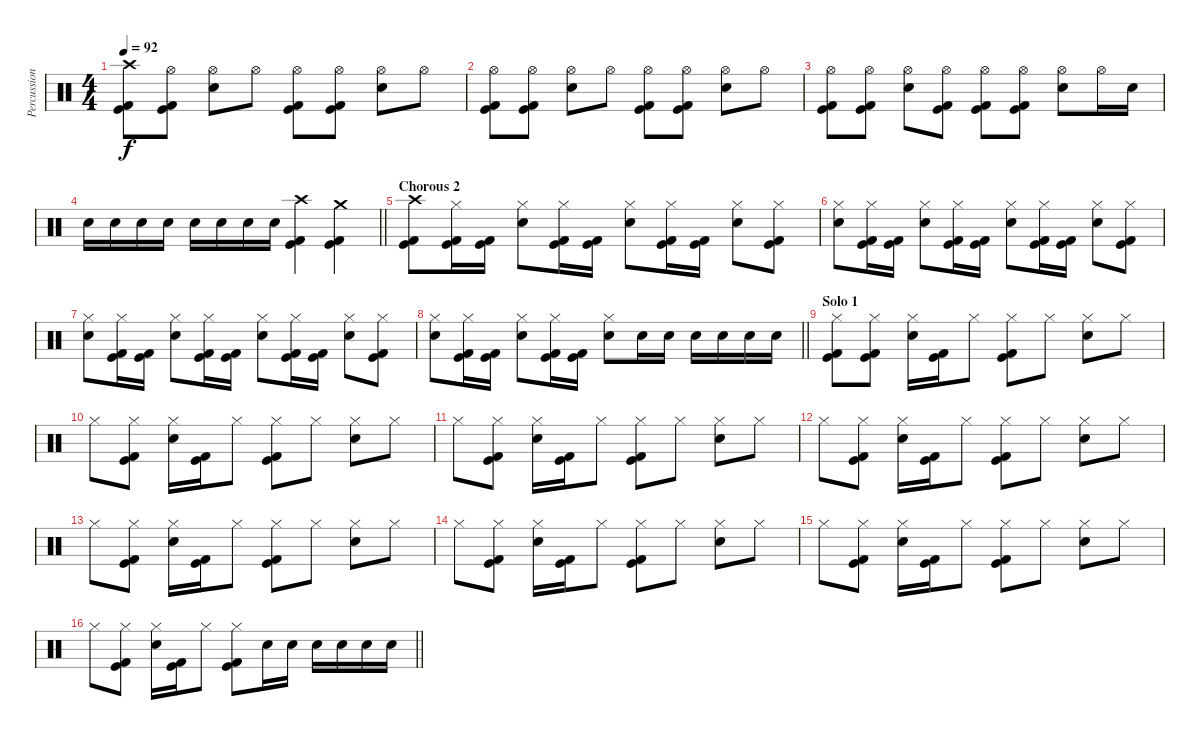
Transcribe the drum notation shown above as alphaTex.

\track ("Percussion" "Percussion") {instrument percussion}
\staff {score}
\articulation defaults
\ts (4 4)
\section ("" "")
\tempo 92
\clef neutral
\ks c
("Crash high (hit)" "Kick (hit)" "Kick (hit) 2").8{dy f} ("Hi-Hat (open)" "Kick (hit)" "Kick (hit) 2").8 ("Hi-Hat (open)" "Electric Snare (hit)").8 "Hi-Hat (open)".8 ("Hi-Hat (open)" "Kick (hit)" "Kick (hit) 2").8 ("Hi-Hat (open)" "Kick (hit)" "Kick (hit) 2").8 ("Hi-Hat (open)" "Electric Snare (hit)").8 "Hi-Hat (open)".8 |
("Hi-Hat (open)" "Kick (hit)" "Kick (hit) 2").8 ("Hi-Hat (open)" "Kick (hit)" "Kick (hit) 2").8 ("Hi-Hat (open)" "Electric Snare (hit)").8 "Hi-Hat (open)".8 ("Hi-Hat (open)" "Kick (hit)" "Kick (hit) 2").8 ("Hi-Hat (open)" "Kick (hit)" "Kick (hit) 2").8 ("Hi-Hat (open)" "Electric Snare (hit)").8 "Hi-Hat (open)".8 |
("Hi-Hat (open)" "Kick (hit)" "Kick (hit) 2").8 ("Hi-Hat (open)" "Kick (hit)" "Kick (hit) 2").8 ("Hi-Hat (open)" "Electric Snare (hit)").8 ("Hi-Hat (open)" "Kick (hit)" "Kick (hit) 2").8 ("Hi-Hat (open)" "Kick (hit)" "Kick (hit) 2").8 ("Hi-Hat (open)" "Kick (hit)" "Kick (hit) 2").8 ("Hi-Hat (open)" "Electric Snare (hit)").8 "Hi-Hat (open)".16 "Electric Snare (hit)".16 |
\barLineRight lightlight "Electric Snare (hit)".16 "Electric Snare (hit)".16 "Electric Snare (hit)".16 "Electric Snare (hit)".16 "Electric Snare (hit)".16 "Electric Snare (hit)".16 "Electric Snare (hit)".16 "Electric Snare (hit)".16
("Crash high (hit)" "Kick (hit)" "Kick (hit) 2").4 ("Crash medium (hit)" "Kick (hit)" "Kick (hit) 2").4 |
\section ("" "Chorous 2")
("Crash high (hit)" "Kick (hit)" "Kick (hit) 2").8 ("Hi-Hat (closed)" "Kick (hit)" "Kick (hit) 2").16 ("Kick (hit)" "Kick (hit) 2").16 ("Hi-Hat (closed)" "Electric Snare (hit)").8 ("Hi-Hat (closed)" "Kick (hit)" "Kick (hit) 2").16 ("Kick (hit)" "Kick (hit) 2").16 ("Hi-Hat (closed)" "Electric Snare (hit)").8 ("Hi-Hat (closed)" "Kick (hit)" "Kick (hit) 2").16 ("Kick (hit)" "Kick (hit) 2").16 ("Hi-Hat (closed)" "Electric Snare (hit)").8 ("Hi-Hat (closed)" "Kick (hit)" "Kick (hit) 2").8 |
("Hi-Hat (closed)" "Electric Snare (hit)").8 ("Hi-Hat (closed)" "Kick (hit)" "Kick (hit) 2").16 ("Kick (hit)" "Kick (hit) 2").16 ("Hi-Hat (closed)" "Electric Snare (hit)").8 ("Hi-Hat (closed)" "Kick (hit)" "Kick (hit) 2").16 ("Kick (hit)" "Kick (hit) 2").16 ("Hi-Hat (closed)" "Electric Snare (hit)").8 ("Hi-Hat (closed)" "Kick (hit)" "Kick (hit) 2").16 ("Kick (hit)" "Kick (hit) 2").16 ("Hi-Hat (closed)" "Electric Snare (hit)").8 ("Hi-Hat (closed)" "Kick (hit)" "Kick (hit) 2").8 |
("Hi-Hat (closed)" "Electric Snare (hit)").8 ("Hi-Hat (closed)" "Kick (hit)" "Kick (hit) 2").16 ("Kick (hit)" "Kick (hit) 2").16 ("Hi-Hat (closed)" "Electric Snare (hit)").8 ("Hi-Hat (closed)" "Kick (hit)" "Kick (hit) 2").16 ("Kick (hit)" "Kick (hit) 2").16 ("Hi-Hat (closed)" "Electric Snare (hit)").8 ("Hi-Hat (closed)" "Kick (hit)" "Kick (hit) 2").16 ("Kick (hit)" "Kick (hit) 2").16 ("Hi-Hat (closed)" "Electric Snare (hit)").8 ("Hi-Hat (closed)" "Kick (hit)" "Kick (hit) 2").8 |
\barLineRight lightlight
("Hi-Hat (closed)" "Electric Snare (hit)").8 ("Hi-Hat (closed)" "Kick (hit)" "Kick (hit) 2").16 ("Kick (hit)" "Kick (hit) 2").16 ("Hi-Hat (closed)" "Electric Snare (hit)").8 ("Hi-Hat (closed)" "Kick (hit)" "Kick (hit) 2").16 ("Kick (hit)" "Kick (hit) 2").16 ("Hi-Hat (closed)" "Electric Snare (hit)").8 "Electric Snare (hit)".16 "Electric Snare (hit)".16 "Electric Snare (hit)".16 "Electric Snare (hit)".16 "Electric Snare (hit)".16 "Electric Snare (hit)".16 |
\section ("" "Solo 1")
("Hi-Hat (closed)" "Kick (hit)" "Kick (hit) 2").8 ("Hi-Hat (closed)" "Kick (hit)" "Kick (hit) 2").8 ("Hi-Hat (closed)" "Electric Snare (hit)").16 ("Kick (hit)" "Kick (hit) 2").16 "Hi-Hat (closed)".8 ("Hi-Hat (closed)" "Kick (hit)" "Kick (hit) 2").8 "Hi-Hat (closed)".8 ("Hi-Hat (closed)" "Electric Snare (hit)").8 "Hi-Hat (closed)".8 |
"Hi-Hat (closed)".8 ("Hi-Hat (closed)" "Kick (hit)" "Kick (hit) 2").8 ("Hi-Hat (closed)" "Electric Snare (hit)").16 ("Kick (hit)" "Kick (hit) 2").16 "Hi-Hat (closed)".8 ("Hi-Hat (closed)" "Kick (hit)" "Kick (hit) 2").8 "Hi-Hat (closed)".8 ("Hi-Hat (closed)" "Electric Snare (hit)").8 "Hi-Hat (closed)".8 |
"Hi-Hat (closed)".8 ("Hi-Hat (closed)" "Kick (hit)" "Kick (hit) 2").8 ("Hi-Hat (closed)" "Electric Snare (hit)").16 ("Kick (hit)" "Kick (hit) 2").16 "Hi-Hat (closed)".8 ("Hi-Hat (closed)" "Kick (hit)" "Kick (hit) 2").8 "Hi-Hat (closed)".8 ("Hi-Hat (closed)" "Electric Snare (hit)").8 "Hi-Hat (closed)".8 |
"Hi-Hat (closed)".8 ("Hi-Hat (closed)" "Kick (hit)" "Kick (hit) 2").8 ("Hi-Hat (closed)" "Electric Snare (hit)").16 ("Kick (hit)" "Kick (hit) 2").16 "Hi-Hat (closed)".8 ("Hi-Hat (closed)" "Kick (hit)" "Kick (hit) 2").8 "Hi-Hat (closed)".8 ("Hi-Hat (closed)" "Electric Snare (hit)").8 "Hi-Hat (closed)".8 |
"Hi-Hat (closed)".8 ("Hi-Hat (closed)" "Kick (hit)" "Kick (hit) 2").8 ("Hi-Hat (closed)" "Electric Snare (hit)").16 ("Kick (hit)" "Kick (hit) 2").16 "Hi-Hat (closed)".8 ("Hi-Hat (closed)" "Kick (hit)" "Kick (hit) 2").8 "Hi-Hat (closed)".8 ("Hi-Hat (closed)" "Electric Snare (hit)").8 "Hi-Hat (closed)".8 |
"Hi-Hat (closed)".8 ("Hi-Hat (closed)" "Kick (hit)" "Kick (hit) 2").8 ("Hi-Hat (closed)" "Electric Snare (hit)").16 ("Kick (hit)" "Kick (hit) 2").16 "Hi-Hat (closed)".8 ("Hi-Hat (closed)" "Kick (hit)" "Kick (hit) 2").8 "Hi-Hat (closed)".8 ("Hi-Hat (closed)" "Electric Snare (hit)").8 "Hi-Hat (closed)".8 |
"Hi-Hat (closed)".8 ("Hi-Hat (closed)" "Kick (hit)" "Kick (hit) 2").8 ("Hi-Hat (closed)" "Electric Snare (hit)").16 ("Kick (hit)" "Kick (hit) 2").16 "Hi-Hat (closed)".8 ("Hi-Hat (closed)" "Kick (hit)" "Kick (hit) 2").8 "Hi-Hat (closed)".8 ("Hi-Hat (closed)" "Electric Snare (hit)").8 "Hi-Hat (closed)".8 |
\barLineRight lightlight "Hi-Hat (closed)".8
("Hi-Hat (closed)" "Kick (hit)" "Kick (hit) 2").8 ("Hi-Hat (closed)" "Electric Snare (hit)").16 ("Kick (hit)" "Kick (hit) 2").16 "Hi-Hat (closed)".8 ("Hi-Hat (closed)" "Kick (hit)" "Kick (hit) 2").8 "Electric Snare (hit)".16 "Electric Snare (hit)".16 "Electric Snare (hit)".16 "Electric Snare (hit)".16 "Electric Snare (hit)".16 "Electric Snare (hit)".16
